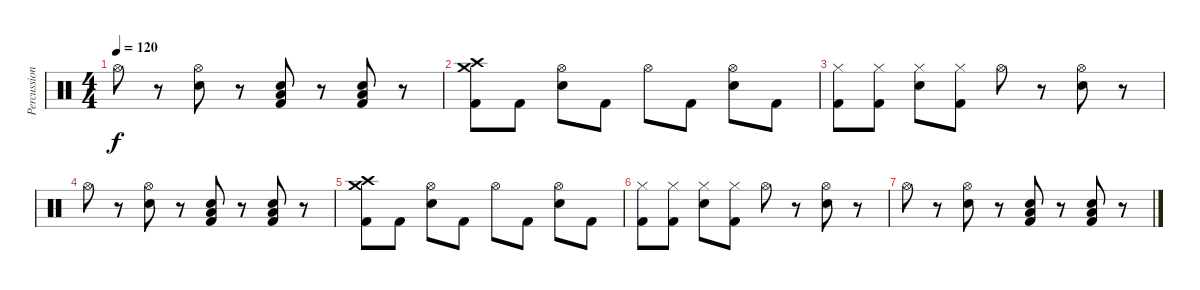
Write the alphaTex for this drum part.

\track ("Percussion" "Percussion") {instrument percussion}
\staff {score}
\articulation defaults
\ts (4 4)
\tempo 120
\clef neutral
\ks aminor "Hi-Hat (open)".8{dy f}
r.8 ("Hi-Hat (open)" "Electric Snare (hit)").8 r.8 ("Electric Snare (hit)" "Low Floor Tom (hit)" "Kick (hit) 2").8 r.8 ("Electric Snare (hit)" "Low Floor Tom (hit)" "Kick (hit) 2").8 r.8 |
("Crash medium (hit)" "Crash high (hit)" "Kick (hit) 2").8 "Kick (hit) 2".8 ("Hi-Hat (open)" "Electric Snare (hit)").8 "Kick (hit) 2".8 "Hi-Hat (open)".8 "Kick (hit) 2".8 ("Hi-Hat (open)" "Electric Snare (hit)").8 "Kick (hit) 2".8 |
("Hi-Hat (closed)" "Kick (hit) 2").8 ("Hi-Hat (closed)" "Kick (hit) 2").8 ("Hi-Hat (closed)" "Electric Snare (hit)").8 ("Hi-Hat (closed)" "Kick (hit) 2").8 "Hi-Hat (open)".8 r.8 ("Hi-Hat (open)" "Electric Snare (hit)").8 r.8 |
"Hi-Hat (open)".8 r.8 ("Hi-Hat (open)" "Electric Snare (hit)").8 r.8 ("Electric Snare (hit)" "Low Floor Tom (hit)" "Kick (hit) 2").8 r.8 ("Electric Snare (hit)" "Low Floor Tom (hit)" "Kick (hit) 2").8 r.8 |
("Crash medium (hit)" "Crash high (hit)" "Kick (hit) 2").8 "Kick (hit) 2".8 ("Hi-Hat (open)" "Electric Snare (hit)").8 "Kick (hit) 2".8 "Hi-Hat (open)".8 "Kick (hit) 2".8 ("Hi-Hat (open)" "Electric Snare (hit)").8 "Kick (hit) 2".8 |
("Hi-Hat (closed)" "Kick (hit) 2").8 ("Hi-Hat (closed)" "Kick (hit) 2").8 ("Hi-Hat (closed)" "Electric Snare (hit)").8 ("Hi-Hat (closed)" "Kick (hit) 2").8 "Hi-Hat (open)".8 r.8 ("Hi-Hat (open)" "Electric Snare (hit)").8 r.8 |
"Hi-Hat (open)".8 r.8 ("Hi-Hat (open)" "Electric Snare (hit)").8 r.8 ("Electric Snare (hit)" "Low Floor Tom (hit)" "Kick (hit) 2").8 r.8 ("Electric Snare (hit)" "Low Floor Tom (hit)" "Kick (hit) 2").8 r.8
